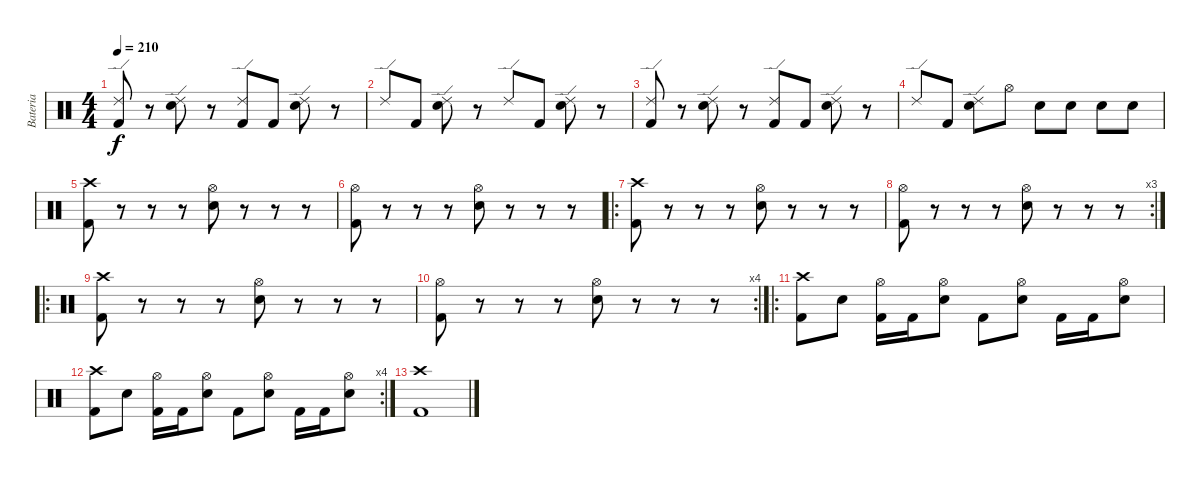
\track ("Bateria" "Bateria") {instrument percussion}
\staff {score}
\articulation defaults
\ts (4 4)
\tempo 210
\clef neutral
\ks c
("Ride (edge) 2" "Kick (hit) 2").8{dy f} r.8 ("Ride (edge) 2" "Snare (hit) 2").8 r.8 ("Ride (edge) 2" "Kick (hit) 2").8 "Kick (hit) 2".8 ("Ride (edge) 2" "Snare (hit) 2").8 r.8 |
"Ride (edge) 2".8 "Kick (hit) 2".8 ("Ride (edge) 2" "Snare (hit) 2").8 r.8 "Ride (edge) 2".8 "Kick (hit) 2".8 ("Ride (edge) 2" "Snare (hit) 2").8 r.8 |
("Ride (edge) 2" "Kick (hit) 2").8 r.8 ("Ride (edge) 2" "Snare (hit) 2").8 r.8 ("Ride (edge) 2" "Kick (hit) 2").8 "Kick (hit) 2".8 ("Ride (edge) 2" "Snare (hit) 2").8 r.8 |
"Ride (edge) 2".8 "Kick (hit) 2".8 ("Ride (edge) 2" "Snare (hit) 2").8 "Hi-Hat (open)".8 "Snare (hit) 2".8 "Snare (hit) 2".8 "Snare (hit) 2".8 "Snare (hit) 2".8 |
("Crash high (hit)" "Kick (hit) 2").8 r.8 r.8 r.8 ("Hi-Hat (open)" "Snare (hit) 2").8 r.8 r.8 r.8 |
("Hi-Hat (open)" "Kick (hit) 2").8 r.8 r.8 r.8 ("Hi-Hat (open)" "Snare (hit) 2").8 r.8 r.8 r.8 |
\ro
("Crash high (hit)" "Kick (hit) 2").8 r.8 r.8 r.8 ("Hi-Hat (open)" "Snare (hit) 2").8 r.8 r.8 r.8 |
\rc 3
("Hi-Hat (open)" "Kick (hit) 2").8 r.8 r.8 r.8 ("Hi-Hat (open)" "Snare (hit) 2").8 r.8 r.8 r.8 |
\ro
("Crash high (hit)" "Kick (hit) 2").8 r.8 r.8 r.8 ("Hi-Hat (open)" "Snare (hit) 2").8 r.8 r.8 r.8 |
\rc 4
("Hi-Hat (open)" "Kick (hit) 2").8 r.8 r.8 r.8 ("Hi-Hat (open)" "Snare (hit) 2").8 r.8 r.8 r.8 |
\ro
("Crash high (hit)" "Kick (hit) 2").8 "Snare (hit) 2".8 ("Hi-Hat (open)" "Kick (hit) 2").16 "Kick (hit) 2".16 ("Hi-Hat (open)" "Snare (hit) 2").8 "Kick (hit) 2".8 ("Hi-Hat (open)" "Snare (hit) 2").8 "Kick (hit) 2".16 "Kick (hit) 2".16 ("Hi-Hat (open)" "Snare (hit) 2").8 |
\rc 4
("Crash high (hit)" "Kick (hit) 2").8 "Snare (hit) 2".8 ("Hi-Hat (open)" "Kick (hit) 2").16 "Kick (hit) 2".16 ("Hi-Hat (open)" "Snare (hit) 2").8 "Kick (hit) 2".8 ("Hi-Hat (open)" "Snare (hit) 2").8 "Kick (hit) 2".16 "Kick (hit) 2".16 ("Hi-Hat (open)" "Snare (hit) 2").8 |
("Crash high (hit)" "Kick (hit) 2").1
